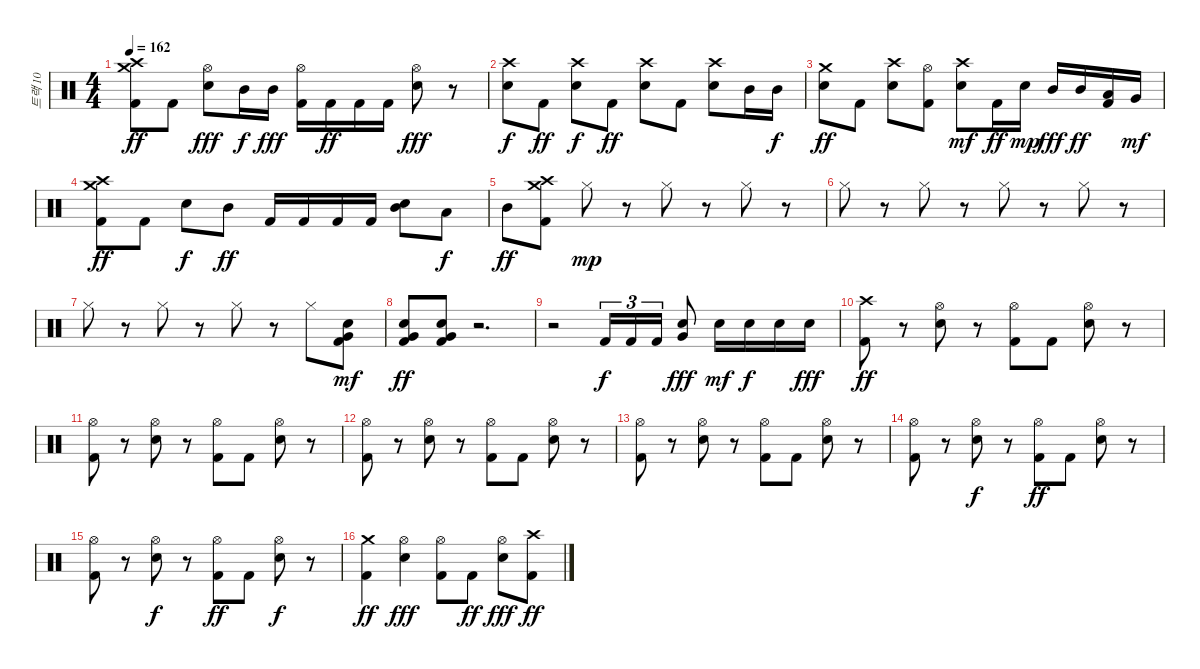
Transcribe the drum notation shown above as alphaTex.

\track ("트랙 10" "트랙 10") {instrument percussion}
\staff {score}
\articulation defaults
\ts (4 4)
\tempo 162
\clef neutral
\ks c
("Kick (hit) 2" "Crash medium (hit)" "Crash high (hit)").8{dy ff} "Kick (hit) 2".8 ("Electric Snare (hit)" "Hi-Hat (open)").8{dy fff} "Mid Tom (hit)".16{dy f} "Mid Tom (hit)".16{dy fff} ("Kick (hit) 2" "Hi-Hat (open)").16 "Kick (hit) 2".16{dy ff} "Kick (hit) 2".16 "Kick (hit) 2".16 ("Electric Snare (hit)" "Hi-Hat (open)").8{dy fff} r.8 |
("Electric Snare (hit)" "Crash high (hit)").8{dy f} "Kick (hit) 2".8{dy ff} ("Electric Snare (hit)" "Crash high (hit)").8{dy f} "Kick (hit) 2".8{dy ff} ("Electric Snare (hit)" "Crash high (hit)").8 "Kick (hit) 2".8 ("Electric Snare (hit)" "Crash high (hit)").8 "Mid Tom (hit)".16 "Mid Tom (hit)".16{dy f} |
("Electric Snare (hit)" "Crash medium (hit)").8{dy ff} "Kick (hit) 2".8 ("Electric Snare (hit)" "Crash high (hit)").8 ("Hi-Hat (open)" "Kick (hit) 2").8 ("Electric Snare (hit)" "Crash high (hit)").8{dy mf} "Kick (hit) 2".16{dy ff} "Electric Snare (hit)".16{dy mp} "Mid Tom (hit)".16{dy fff} "Mid Tom (hit)".16{dy ff} ("Kick (hit) 2" "Low Tom (hit)").16 "Very Low Tom (hit)".16{dy mf} |
("Kick (hit) 2" "Crash medium (hit)" "Crash high (hit)").8{dy ff} "Kick (hit) 2".8 "Electric Snare (hit)".8{dy f} "Mid Tom (hit)".8{dy ff} "Kick (hit) 2".16 "Kick (hit) 2".16 "Kick (hit) 2".16 "Kick (hit) 2".16 ("Electric Snare (hit)" "Mid Tom (hit)").8 "Low Tom (hit)".8{dy f} |
"Mid Tom (hit)".8{dy ff} ("Kick (hit) 2" "Crash medium (hit)" "Crash high (hit)").8 "Hi-Hat (closed)".8{dy mp} r.8 "Hi-Hat (closed)".8 r.8 "Hi-Hat (closed)".8 r.8 |
"Hi-Hat (closed)".8 r.8 "Hi-Hat (closed)".8 r.8 "Hi-Hat (closed)".8 r.8 "Hi-Hat (closed)".8 r.8 |
"Hi-Hat (closed)".8 r.8 "Hi-Hat (closed)".8 r.8 "Hi-Hat (closed)".8 r.8 "Hi-Hat (closed)".8 ("Kick (hit) 2" "Very Low Tom (hit)" "Electric Snare (hit)").8{dy mf} |
("Kick (hit) 2" "Very Low Tom (hit)" "Electric Snare (hit)").8{dy ff} ("Kick (hit) 2" "Very Low Tom (hit)" "Electric Snare (hit)").8 r.2{d} |
r.2 "Kick (hit) 2".16{tu (3 2) dy f} "Kick (hit) 2".16{tu (3 2)} "Kick (hit) 2".16{tu (3 2)} ("Very Low Tom (hit)" "Electric Snare (hit)").8{dy fff} "Electric Snare (hit)".16{dy mf} "Electric Snare (hit)".16{dy f} "Electric Snare (hit)".16 "Electric Snare (hit)".16{dy fff} |
("Kick (hit) 2" "Crash high (hit)").8{dy ff} r.8 ("Electric Snare (hit)" "Hi-Hat (open)").8 r.8 ("Kick (hit) 2" "Hi-Hat (open)").8 "Kick (hit) 2".8 ("Electric Snare (hit)" "Hi-Hat (open)").8 r.8 |
("Kick (hit) 2" "Hi-Hat (open)").8 r.8 ("Electric Snare (hit)" "Hi-Hat (open)").8 r.8 ("Kick (hit) 2" "Hi-Hat (open)").8 "Kick (hit) 2".8 ("Electric Snare (hit)" "Hi-Hat (open)").8 r.8 |
("Kick (hit) 2" "Hi-Hat (open)").8 r.8 ("Electric Snare (hit)" "Hi-Hat (open)").8 r.8 ("Kick (hit) 2" "Hi-Hat (open)").8 "Kick (hit) 2".8 ("Electric Snare (hit)" "Hi-Hat (open)").8 r.8 |
("Kick (hit) 2" "Hi-Hat (open)").8 r.8 ("Electric Snare (hit)" "Hi-Hat (open)").8 r.8 ("Kick (hit) 2" "Hi-Hat (open)").8 "Kick (hit) 2".8 ("Electric Snare (hit)" "Hi-Hat (open)").8 r.8 |
("Kick (hit) 2" "Hi-Hat (open)").8 r.8 ("Electric Snare (hit)" "Hi-Hat (open)").8{dy f} r.8 ("Kick (hit) 2" "Hi-Hat (open)").8{dy ff} "Kick (hit) 2".8 ("Electric Snare (hit)" "Hi-Hat (open)").8 r.8 |
("Kick (hit) 2" "Hi-Hat (open)").8 r.8 ("Electric Snare (hit)" "Hi-Hat (open)").8{dy f} r.8 ("Kick (hit) 2" "Hi-Hat (open)").8{dy ff} "Kick (hit) 2".8 ("Electric Snare (hit)" "Hi-Hat (open)").8{dy f} r.8 |
("Kick (hit) 2" "Crash medium (hit)").4{dy ff} ("Electric Snare (hit)" "Hi-Hat (open)").4{dy fff} ("Kick (hit) 2" "Hi-Hat (open)").8 "Kick (hit) 2".8{dy ff} ("Electric Snare (hit)" "Hi-Hat (open)").8{dy fff} ("Kick (hit) 2" "Crash high (hit)").8{dy ff}
